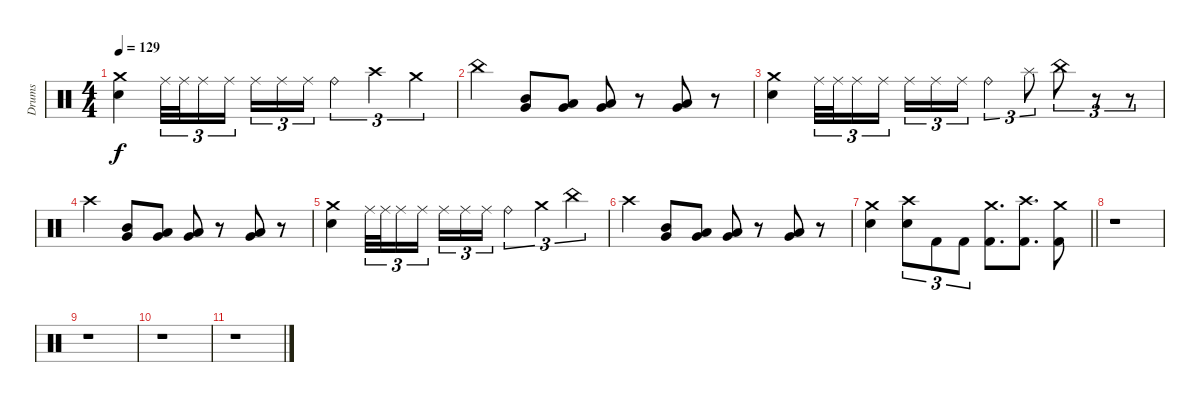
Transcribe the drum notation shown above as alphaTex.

\track ("Drums" "Drums") {instrument percussion}
\staff {score}
\articulation defaults
\ts (4 4)
\tempo 129
\clef neutral
\ks c
("Crash medium (hit)" "Snare (hit) 2").4{dy f} "Ride (middle)".32{tu (3 2)} "Ride (middle)".32{tu (3 2)} "Ride (middle)".16{tu (3 2)} "Ride (middle)".16{tu (3 2) beam splitsecondary} "Ride (middle)".16{tu (3 2)} "Ride (middle)".16{tu (3 2)} "Ride (middle)".16{tu (3 2)} "Ride (bell)".4{tu (3 2)} "Crash high (hit)".4{tu (3 2)} "Crash medium (hit)".4{tu (3 2)} |
"China (hit)".4 ("Mid Tom (hit)" "Very Low Tom (hit)").8 ("Low Tom (hit)" "Very Low Tom (hit)").8 ("Very Low Tom (hit)" "Low Floor Tom (hit)").8 r.8 ("Very Low Tom (hit)" "Low Floor Tom (hit)").8 r.8 |
("Crash medium (hit)" "Snare (hit) 2").4 "Ride (middle)".32{tu (3 2)} "Ride (middle)".32{tu (3 2)} "Ride (middle)".16{tu (3 2)} "Ride (middle)".16{tu (3 2) beam splitsecondary} "Ride (middle)".16{tu (3 2)} "Ride (middle)".16{tu (3 2)} "Ride (middle)".16{tu (3 2)} "Ride (bell)".4{tu (3 2)} "Splash (hit)".8{tu (3 2)} "China (hit)".8{tu (3 2)} r.8{tu (3 2)} r.8{tu (3 2)} |
"Crash high (hit)".4 ("Mid Tom (hit)" "Very Low Tom (hit)").8 ("Low Tom (hit)" "Very Low Tom (hit)").8 ("Very Low Tom (hit)" "Low Floor Tom (hit)").8 r.8 ("Very Low Tom (hit)" "Low Floor Tom (hit)").8 r.8 |
("Crash medium (hit)" "Snare (hit) 2").4 "Ride (middle)".32{tu (3 2)} "Ride (middle)".32{tu (3 2)} "Ride (middle)".16{tu (3 2)} "Ride (middle)".16{tu (3 2) beam splitsecondary} "Ride (middle)".16{tu (3 2)} "Ride (middle)".16{tu (3 2)} "Ride (middle)".16{tu (3 2)} "Ride (bell)".4{tu (3 2)} "Crash medium (hit)".4{tu (3 2)} "China (hit)".4{tu (3 2)} |
"Crash high (hit)".4 ("Mid Tom (hit)" "Very Low Tom (hit)").8 ("Low Tom (hit)" "Very Low Tom (hit)").8 ("Very Low Tom (hit)" "Low Floor Tom (hit)").8 r.8 ("Very Low Tom (hit)" "Low Floor Tom (hit)").8 r.8 |
\barLineRight lightlight
("Crash medium (hit)" "Snare (hit) 2").4 ("Crash high (hit)" "Snare (hit) 2").8{tu (3 2)} "Kick (hit) 2".8{tu (3 2)} "Kick (hit) 2".8{tu (3 2)} ("Crash medium (hit)" "Kick (hit) 2").8{d} ("Crash high (hit)" "Kick (hit) 2").8{d} ("Crash medium (hit)" "Kick (hit) 2").8 |
r.1 |
r.1 |
r.1 |
r.1
